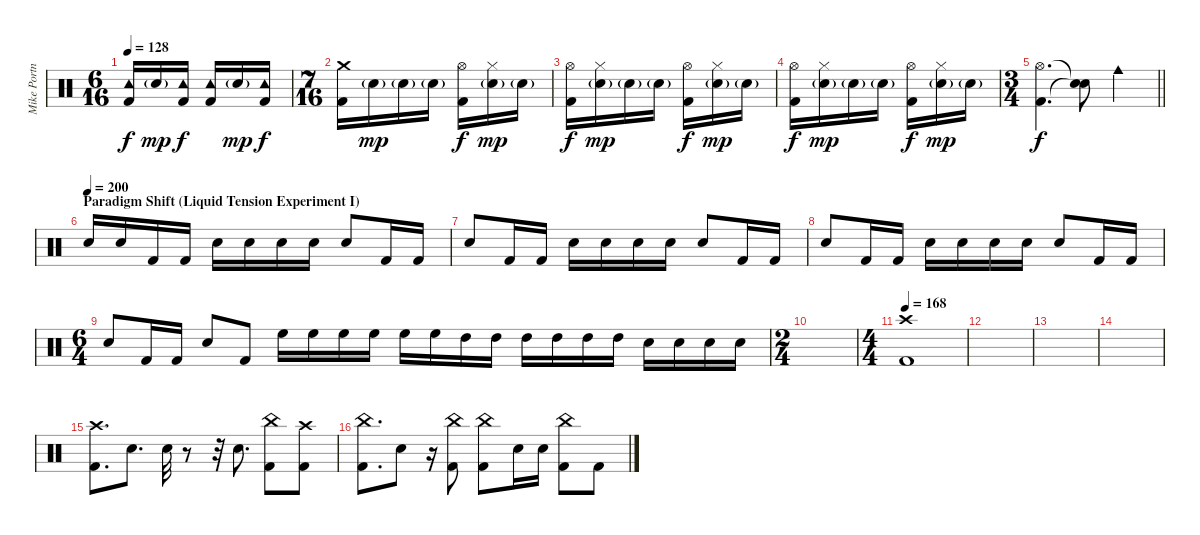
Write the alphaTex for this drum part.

\track ("Mike Portnoy Drums" "Mike Portn") {instrument percussion}
\staff {score}
\articulation defaults
\ts (6 16)
\tempo 128
\clef neutral
\ks c
("Tambourine (hit)" "Kick (hit) 2").16{dy f} "Snare (hit) 2"{g}.16{dy mp} ("Tambourine (hit)" "Kick (hit) 2").16{dy f} ("Tambourine (hit)" "Kick (hit) 2").16 "Snare (hit) 2"{g}.16{dy mp} ("Tambourine (hit)" "Kick (hit) 2").16{dy f} |
\ts (7 16)
("Crash medium (hit)" "Kick (hit) 2").16 "Snare (hit) 2"{g}.16{dy mp} "Snare (hit) 2"{g}.16 "Snare (hit) 2"{g}.16 ("Hi-Hat (open)" "Kick (hit) 2").16{dy f} ("Hi-Hat (closed)" "Snare (hit) 2"{g}).16{dy mp} "Snare (hit) 2"{g}.16 |
("Hi-Hat (open)" "Kick (hit) 2").16{dy f} ("Hi-Hat (closed)" "Snare (hit) 2"{g}).16{dy mp} "Snare (hit) 2"{g}.16 "Snare (hit) 2"{g}.16 ("Hi-Hat (open)" "Kick (hit) 2").16{dy f} ("Hi-Hat (closed)" "Snare (hit) 2"{g}).16{dy mp} "Snare (hit) 2"{g}.16 |
("Hi-Hat (open)" "Kick (hit) 2").16{dy f} ("Hi-Hat (closed)" "Snare (hit) 2"{g}).16{dy mp} "Snare (hit) 2"{g}.16 "Snare (hit) 2"{g}.16 ("Hi-Hat (open)" "Kick (hit) 2").16{dy f} ("Hi-Hat (closed)" "Snare (hit) 2"{g}).16{dy mp} "Snare (hit) 2"{g}.16 |
\ts (3 4)
\barLineRight lightlight
("Hi-Hat (open)" "Kick (hit) 2").4{d dy f} ("Snare (hit)"{t} "Snare (hit)"{t}).8 "Cowbell medium (hit)".4 |
\section ("" "Paradigm Shift (Liquid Tension Experiment I)")
\tempo (200)
"Electric Snare (hit)".16 "Electric Snare (hit)".16 "Kick (hit) 2".16 "Kick (hit) 2".16 "Electric Snare (hit)".16 "Electric Snare (hit)".16 "Electric Snare (hit)".16 "Electric Snare (hit)".16 "Electric Snare (hit)".8 "Kick (hit) 2".16 "Kick (hit) 2".16 |
"Electric Snare (hit)".8 "Kick (hit) 2".16 "Kick (hit) 2".16 "Electric Snare (hit)".16 "Electric Snare (hit)".16 "Electric Snare (hit)".16 "Electric Snare (hit)".16 "Electric Snare (hit)".8 "Kick (hit) 2".16 "Kick (hit) 2".16 |
"Electric Snare (hit)".8 "Kick (hit) 2".16 "Kick (hit) 2".16 "Electric Snare (hit)".16 "Electric Snare (hit)".16 "Electric Snare (hit)".16 "Electric Snare (hit)".16 "Electric Snare (hit)".8 "Kick (hit) 2".16 "Kick (hit) 2".16 |
\ts (6 4)
"Electric Snare (hit)".8 "Kick (hit) 2".16 "Kick (hit) 2".16 "Electric Snare (hit)".8 "Kick (hit) 2".8 "High Floor Tom (hit)".16 "High Floor Tom (hit)".16 "High Floor Tom (hit)".16 "High Floor Tom (hit)".16 "High Floor Tom (hit)".16 "High Floor Tom (hit)".16 "High Tom (hit)".16 "High Tom (hit)".16 "High Tom (hit)".16 "High Tom (hit)".16 "High Tom (hit)".16 "High Tom (hit)".16 "Electric Snare (hit)".16 "Electric Snare (hit)".16 "Electric Snare (hit)".16 "Electric Snare (hit)".16 |
\ts (2 4)
|
\ts (4 4)
\tempo 168
("Crash high (hit)" "Kick (hit) 2").1 |
|
|
|
("Kick (hit) 2" "Crash high (hit)").8{d} "Electric Snare (hit)".8{d} "Electric Snare (hit)".32 r.8 r.32 "Electric Snare (hit)".8{d} ("Kick (hit) 2" "China (hit)").8 ("Kick (hit) 2" "Crash high (hit)").8 |
("China (hit)" "Kick (hit) 2").8{d} "Electric Snare (hit)".8 r.16 ("Kick (hit) 2" "China (hit)").8 ("Kick (hit) 2" "China (hit)").8 "Electric Snare (hit)".16 "Electric Snare (hit)".16 ("Kick (hit) 2" "China (hit)").8 "Kick (hit) 2".8
